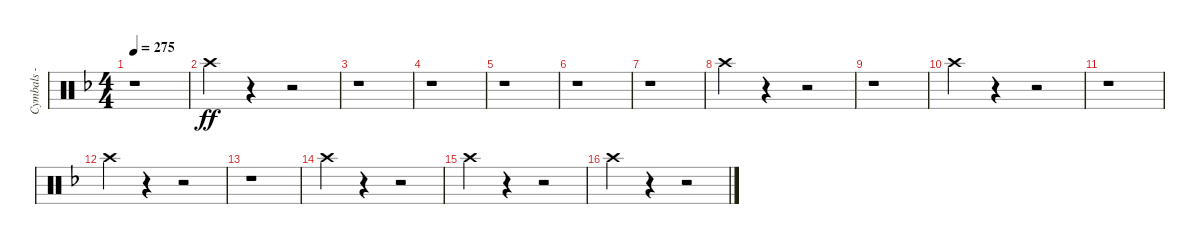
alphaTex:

\track ("Cymbals - crash" "Cymbals - ") {instrument percussion}
\staff {score}
\articulation defaults
\ts (4 4)
\tempo 275
\clef neutral
\ks dminor
r.1{dy ff} |
"Crash high (hit)".4 r.4 r.2 |
r.1 |
r.1 |
r.1 |
r.1 |
r.1 |
"Crash high (hit)".4 r.4 r.2 |
r.1 |
"Crash high (hit)".4 r.4 r.2 |
r.1 |
"Crash high (hit)".4 r.4 r.2 |
r.1 |
"Crash high (hit)".4 r.4 r.2 |
"Crash high (hit)".4 r.4 r.2 |
"Crash high (hit)".4 r.4 r.2
